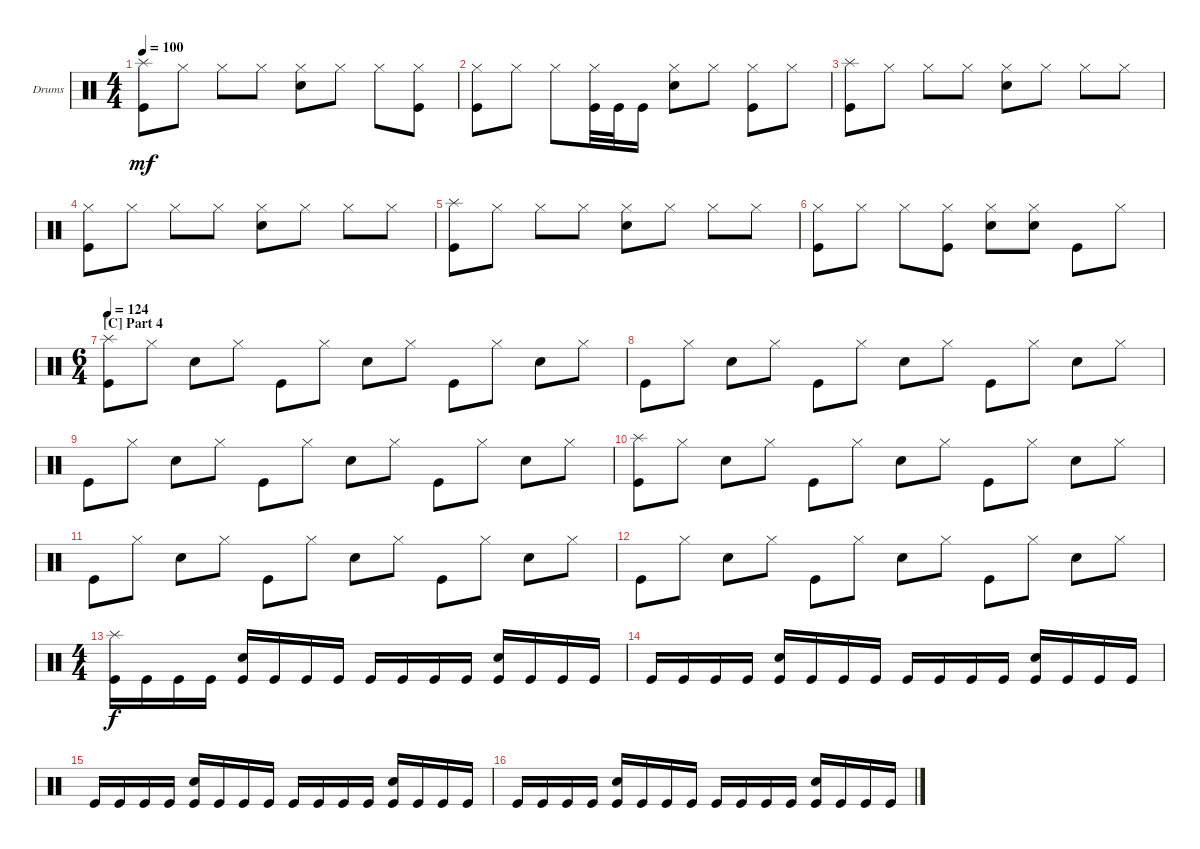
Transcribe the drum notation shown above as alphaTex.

\bracketExtendMode groupsimilarinstruments
\firstSystemTrackNameOrientation horizontal
\otherSystemsTrackNameOrientation horizontal
\track ("Drumkit" "Drums") {instrument percussion}
\staff {score}
\articulation defaults
\ts (4 4)
\tempo 100
\clef neutral
\ks c
("Splash (hit)" "Kick (hit)").8{dy mf} "Hi-Hat (closed)".8 "Hi-Hat (closed)".8 "Hi-Hat (closed)".8 ("Snare (hit) 2" "Hi-Hat (closed)").8 "Hi-Hat (closed)".8 "Hi-Hat (closed)".8 ("Hi-Hat (closed)" "Kick (hit)").8 |
("Kick (hit)" "Hi-Hat (closed)").8 "Hi-Hat (closed)".8 "Hi-Hat (closed)".8 ("Kick (hit)" "Hi-Hat (closed)").32 "Kick (hit)".32 "Kick (hit)".16 ("Snare (hit) 2" "Hi-Hat (closed)").8 "Hi-Hat (closed)".8 ("Kick (hit)" "Hi-Hat (closed)").8 "Hi-Hat (closed)".8 |
("Splash (hit)" "Kick (hit)").8 "Hi-Hat (closed)".8 "Hi-Hat (closed)".8 "Hi-Hat (closed)".8 ("Snare (hit) 2" "Hi-Hat (closed)").8 "Hi-Hat (closed)".8 "Hi-Hat (closed)".8 "Hi-Hat (closed)".8 |
("Kick (hit)" "Hi-Hat (closed)").8 "Hi-Hat (closed)".8 "Hi-Hat (closed)".8 "Hi-Hat (closed)".8 ("Snare (hit) 2" "Hi-Hat (closed)").8 "Hi-Hat (closed)".8 "Hi-Hat (closed)".8 "Hi-Hat (closed)".8 |
("Splash (hit)" "Kick (hit)").8 "Hi-Hat (closed)".8 "Hi-Hat (closed)".8 "Hi-Hat (closed)".8 ("Snare (hit) 2" "Hi-Hat (closed)").8 "Hi-Hat (closed)".8 "Hi-Hat (closed)".8 "Hi-Hat (closed)".8 |
("Kick (hit)" "Hi-Hat (closed)").8 "Hi-Hat (closed)".8 "Hi-Hat (closed)".8 ("Kick (hit)" "Hi-Hat (closed)").8 ("Snare (hit) 2" "Hi-Hat (closed)").8 ("Snare (hit) 2" "Hi-Hat (closed)").8 "Kick (hit)".8 "Hi-Hat (closed)".8 |
\ts (6 4)
\section ("C" "Part 4")
\tempo 124
("Kick (hit)" "Splash (hit)").8 "Hi-Hat (closed)".8 "Snare (hit) 2".8 "Hi-Hat (closed)".8 "Kick (hit)".8 "Hi-Hat (closed)".8 "Snare (hit) 2".8 "Hi-Hat (closed)".8 "Kick (hit)".8 "Hi-Hat (closed)".8 "Snare (hit) 2".8 "Hi-Hat (closed)".8 |
"Kick (hit)".8 "Hi-Hat (closed)".8 "Snare (hit) 2".8 "Hi-Hat (closed)".8 "Kick (hit)".8 "Hi-Hat (closed)".8 "Snare (hit) 2".8 "Hi-Hat (closed)".8 "Kick (hit)".8 "Hi-Hat (closed)".8 "Snare (hit) 2".8 "Hi-Hat (closed)".8 |
"Kick (hit)".8 "Hi-Hat (closed)".8 "Snare (hit) 2".8 "Hi-Hat (closed)".8 "Kick (hit)".8 "Hi-Hat (closed)".8 "Snare (hit) 2".8 "Hi-Hat (closed)".8 "Kick (hit)".8 "Hi-Hat (closed)".8 "Snare (hit) 2".8 "Hi-Hat (closed)".8 |
("Kick (hit)" "Splash (hit)").8 "Hi-Hat (closed)".8 "Snare (hit) 2".8 "Hi-Hat (closed)".8 "Kick (hit)".8 "Hi-Hat (closed)".8 "Snare (hit) 2".8 "Hi-Hat (closed)".8 "Kick (hit)".8 "Hi-Hat (closed)".8 "Snare (hit) 2".8 "Hi-Hat (closed)".8 |
"Kick (hit)".8 "Hi-Hat (closed)".8 "Snare (hit) 2".8 "Hi-Hat (closed)".8 "Kick (hit)".8 "Hi-Hat (closed)".8 "Snare (hit) 2".8 "Hi-Hat (closed)".8 "Kick (hit)".8 "Hi-Hat (closed)".8 "Snare (hit) 2".8 "Hi-Hat (closed)".8 |
"Kick (hit)".8 "Hi-Hat (closed)".8 "Snare (hit) 2".8 "Hi-Hat (closed)".8 "Kick (hit)".8 "Hi-Hat (closed)".8 "Snare (hit) 2".8 "Hi-Hat (closed)".8 "Kick (hit)".8 "Hi-Hat (closed)".8 "Snare (hit) 2".8 "Hi-Hat (closed)".8 |
\ts (4 4)
("Kick (hit)" "Splash (hit)").16{dy f} "Kick (hit)".16 "Kick (hit)".16 "Kick (hit)".16 ("Snare (hit) 2" "Kick (hit)").16 "Kick (hit)".16 "Kick (hit)".16 "Kick (hit)".16 "Kick (hit)".16 "Kick (hit)".16 "Kick (hit)".16 "Kick (hit)".16 ("Snare (hit) 2" "Kick (hit)").16 "Kick (hit)".16 "Kick (hit)".16 "Kick (hit)".16 |
"Kick (hit)".16 "Kick (hit)".16 "Kick (hit)".16 "Kick (hit)".16 ("Snare (hit) 2" "Kick (hit)").16 "Kick (hit)".16 "Kick (hit)".16 "Kick (hit)".16 "Kick (hit)".16 "Kick (hit)".16 "Kick (hit)".16 "Kick (hit)".16 ("Snare (hit) 2" "Kick (hit)").16 "Kick (hit)".16 "Kick (hit)".16 "Kick (hit)".16 |
"Kick (hit)".16 "Kick (hit)".16 "Kick (hit)".16 "Kick (hit)".16 ("Snare (hit) 2" "Kick (hit)").16 "Kick (hit)".16 "Kick (hit)".16 "Kick (hit)".16 "Kick (hit)".16 "Kick (hit)".16 "Kick (hit)".16 "Kick (hit)".16 ("Snare (hit) 2" "Kick (hit)").16 "Kick (hit)".16 "Kick (hit)".16 "Kick (hit)".16 |
"Kick (hit)".16 "Kick (hit)".16 "Kick (hit)".16 "Kick (hit)".16 ("Snare (hit) 2" "Kick (hit)").16 "Kick (hit)".16 "Kick (hit)".16 "Kick (hit)".16 "Kick (hit)".16 "Kick (hit)".16 "Kick (hit)".16 "Kick (hit)".16 ("Snare (hit) 2" "Kick (hit)").16 "Kick (hit)".16 "Kick (hit)".16 "Kick (hit)".16
